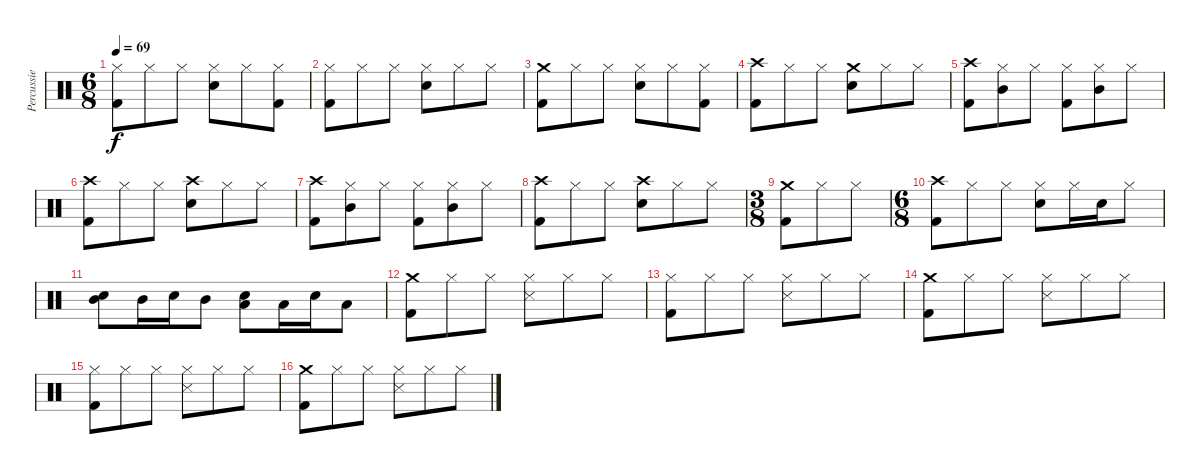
\track ("Percussie" "Percussie") {instrument percussion}
\staff {score}
\articulation defaults
\ts (6 8)
\tempo 69
\clef neutral
\ks c
("Hi-Hat (closed)" "Kick (hit) 2").8{dy f} "Hi-Hat (closed)".8 "Hi-Hat (closed)".8 ("Hi-Hat (closed)" "Snare (hit) 2").8 "Hi-Hat (closed)".8 ("Hi-Hat (closed)" "Kick (hit) 2").8 |
("Hi-Hat (closed)" "Kick (hit) 2").8 "Hi-Hat (closed)".8 "Hi-Hat (closed)".8 ("Hi-Hat (closed)" "Snare (hit) 2").8 "Hi-Hat (closed)".8 "Hi-Hat (closed)".8 |
("Crash medium (hit)" "Kick (hit) 2").8 "Hi-Hat (closed)".8 "Hi-Hat (closed)".8 ("Hi-Hat (closed)" "Snare (hit) 2").8 "Hi-Hat (closed)".8 ("Hi-Hat (closed)" "Kick (hit) 2").8 |
("Crash high (hit)" "Kick (hit) 2").8 "Hi-Hat (closed)".8 "Hi-Hat (closed)".8 ("Crash medium (hit)" "Snare (hit) 2").8 "Hi-Hat (closed)".8 "Hi-Hat (closed)".8 |
("Crash high (hit)" "Kick (hit) 2").8 ("Hi-Hat (closed)" "Mid Tom (hit)").8 "Hi-Hat (closed)".8 ("Hi-Hat (closed)" "Kick (hit) 2").8 ("Hi-Hat (closed)" "Mid Tom (hit)").8 "Hi-Hat (closed)".8 |
("Crash high (hit)" "Kick (hit) 2").8 "Hi-Hat (closed)".8 "Hi-Hat (closed)".8 ("Crash high (hit)" "Snare (hit) 2").8 "Hi-Hat (closed)".8 "Hi-Hat (closed)".8 |
("Crash high (hit)" "Kick (hit) 2").8 ("Hi-Hat (closed)" "Mid Tom (hit)").8 "Hi-Hat (closed)".8 ("Hi-Hat (closed)" "Kick (hit) 2").8 ("Hi-Hat (closed)" "Mid Tom (hit)").8 "Hi-Hat (closed)".8 |
("Crash high (hit)" "Kick (hit) 2").8 "Hi-Hat (closed)".8 "Hi-Hat (closed)".8 ("Crash high (hit)" "Snare (hit) 2").8 "Hi-Hat (closed)".8 "Hi-Hat (closed)".8 |
\ts (3 8)
("Crash medium (hit)" "Kick (hit) 2").8 "Hi-Hat (closed)".8 "Hi-Hat (closed)".8 |
\ts (6 8)
("Crash high (hit)" "Kick (hit) 2").8 "Hi-Hat (closed)".8 "Hi-Hat (closed)".8 ("Hi-Hat (closed)" "Snare (hit) 2").8 "Hi-Hat (closed)".16 "Snare (hit) 2".16 "Hi-Hat (closed)".8 |
("Mid Tom (hit)" "Snare (hit) 2").8 "Mid Tom (hit)".16 "Snare (hit) 2".16 "Mid Tom (hit)".8 ("Snare (hit) 2" "Low Tom (hit)").8 "Low Tom (hit)".16 "Snare (hit) 2".16 "Low Tom (hit)".8 |
("Crash medium (hit)" "Kick (hit) 2").8 "Hi-Hat (closed)".8 "Hi-Hat (closed)".8 ("Hi-Hat (closed)" "Snare (side stick) 3").8 "Hi-Hat (closed)".8 "Hi-Hat (closed)".8 |
("Hi-Hat (closed)" "Kick (hit) 2").8 "Hi-Hat (closed)".8 "Hi-Hat (closed)".8 ("Hi-Hat (closed)" "Snare (side stick) 3").8 "Hi-Hat (closed)".8 "Hi-Hat (closed)".8 |
("Crash medium (hit)" "Kick (hit) 2").8 "Hi-Hat (closed)".8 "Hi-Hat (closed)".8 ("Hi-Hat (closed)" "Snare (side stick) 3").8 "Hi-Hat (closed)".8 "Hi-Hat (closed)".8 |
("Hi-Hat (closed)" "Kick (hit) 2").8 "Hi-Hat (closed)".8 "Hi-Hat (closed)".8 ("Hi-Hat (closed)" "Snare (side stick) 3").8 "Hi-Hat (closed)".8 "Hi-Hat (closed)".8 |
("Crash medium (hit)" "Kick (hit) 2").8 "Hi-Hat (closed)".8 "Hi-Hat (closed)".8 ("Hi-Hat (closed)" "Snare (side stick) 3").8 "Hi-Hat (closed)".8 "Hi-Hat (closed)".8
